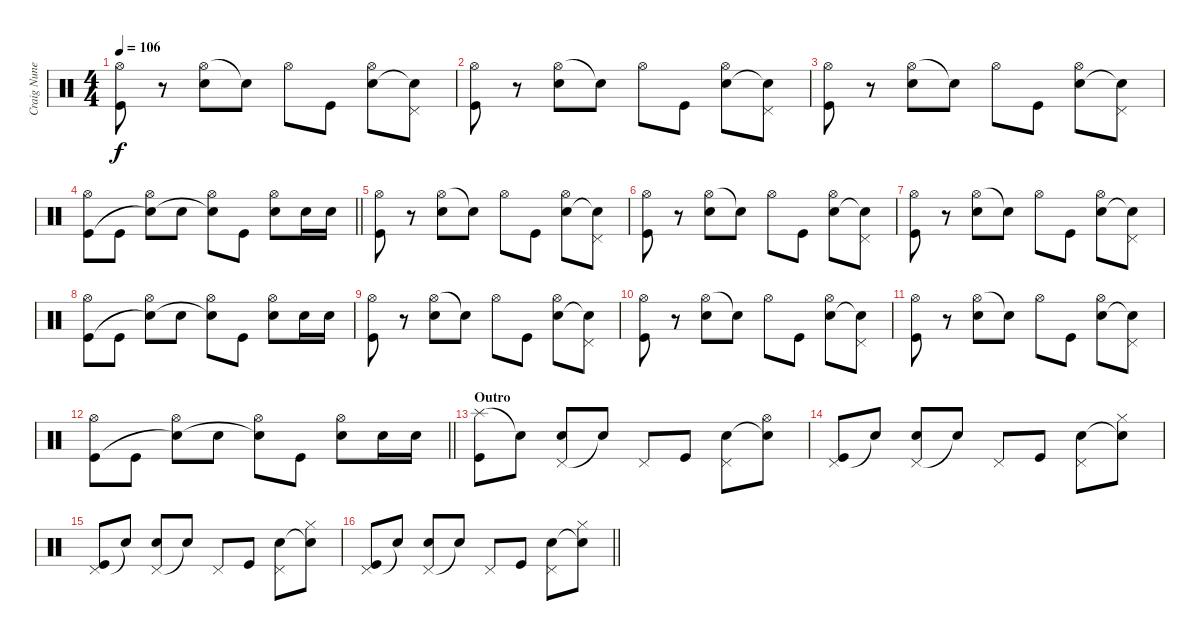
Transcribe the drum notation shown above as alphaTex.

\track ("Craig Nunenmacher (Drums)" "Craig Nune") {instrument percussion}
\staff {score}
\articulation defaults
\ts (4 4)
\tempo 106
\clef neutral
\ks c
("Hi-Hat (open)" "Kick (hit)").8{dy f} r.8 ("Hi-Hat (open)" "Electric Snare (hit)").8 "Snare (hit)"{t}.8 "Hi-Hat (open)".8 "Kick (hit)".8 ("Hi-Hat (open)" "Electric Snare (hit)").8 ("Pedal Hi-Hat (hit)" "Snare (hit)"{t}).8 |
("Hi-Hat (open)" "Kick (hit)").8 r.8 ("Hi-Hat (open)" "Electric Snare (hit)").8 "Snare (hit)"{t}.8 "Hi-Hat (open)".8 "Kick (hit)".8 ("Hi-Hat (open)" "Electric Snare (hit)").8 ("Pedal Hi-Hat (hit)" "Snare (hit)"{t}).8 |
("Hi-Hat (open)" "Kick (hit)").8 r.8 ("Hi-Hat (open)" "Electric Snare (hit)").8 "Snare (hit)"{t}.8 "Hi-Hat (open)".8 "Kick (hit)".8 ("Hi-Hat (open)" "Electric Snare (hit)").8 ("Pedal Hi-Hat (hit)" "Snare (hit)"{t}).8 |
\barLineRight lightlight
("Hi-Hat (open)" "Kick (hit)").8 "Kick (hit)".8 ("Hi-Hat (open)" "Snare (hit)"{t}).8 "Electric Snare (hit)".8 ("Hi-Hat (open)" "Snare (hit)"{t}).8 "Kick (hit)".8 ("Hi-Hat (open)" "Electric Snare (hit)").8 "Electric Snare (hit)".16 "Electric Snare (hit)".16 |
("Hi-Hat (open)" "Kick (hit)").8 r.8 ("Hi-Hat (open)" "Electric Snare (hit)").8 "Snare (hit)"{t}.8 "Hi-Hat (open)".8 "Kick (hit)".8 ("Hi-Hat (open)" "Electric Snare (hit)").8 ("Pedal Hi-Hat (hit)" "Snare (hit)"{t}).8 |
("Hi-Hat (open)" "Kick (hit)").8 r.8 ("Hi-Hat (open)" "Electric Snare (hit)").8 "Snare (hit)"{t}.8 "Hi-Hat (open)".8 "Kick (hit)".8 ("Hi-Hat (open)" "Electric Snare (hit)").8 ("Pedal Hi-Hat (hit)" "Snare (hit)"{t}).8 |
("Hi-Hat (open)" "Kick (hit)").8 r.8 ("Hi-Hat (open)" "Electric Snare (hit)").8 "Snare (hit)"{t}.8 "Hi-Hat (open)".8 "Kick (hit)".8 ("Hi-Hat (open)" "Electric Snare (hit)").8 ("Pedal Hi-Hat (hit)" "Snare (hit)"{t}).8 |
("Hi-Hat (open)" "Kick (hit)").8 "Kick (hit)".8 ("Hi-Hat (open)" "Snare (hit)"{t}).8 "Electric Snare (hit)".8 ("Hi-Hat (open)" "Snare (hit)"{t}).8 "Kick (hit)".8 ("Hi-Hat (open)" "Electric Snare (hit)").8 "Electric Snare (hit)".16 "Electric Snare (hit)".16 |
("Hi-Hat (open)" "Kick (hit)").8 r.8 ("Hi-Hat (open)" "Electric Snare (hit)").8 "Snare (hit)"{t}.8 "Hi-Hat (open)".8 "Kick (hit)".8 ("Hi-Hat (open)" "Electric Snare (hit)").8 ("Pedal Hi-Hat (hit)" "Snare (hit)"{t}).8 |
("Hi-Hat (open)" "Kick (hit)").8 r.8 ("Hi-Hat (open)" "Electric Snare (hit)").8 "Snare (hit)"{t}.8 "Hi-Hat (open)".8 "Kick (hit)".8 ("Hi-Hat (open)" "Electric Snare (hit)").8 ("Pedal Hi-Hat (hit)" "Snare (hit)"{t}).8 |
("Hi-Hat (open)" "Kick (hit)").8 r.8 ("Hi-Hat (open)" "Electric Snare (hit)").8 "Snare (hit)"{t}.8 "Hi-Hat (open)".8 "Kick (hit)".8 ("Hi-Hat (open)" "Electric Snare (hit)").8 ("Pedal Hi-Hat (hit)" "Snare (hit)"{t}).8 |
\barLineRight lightlight
("Hi-Hat (open)" "Kick (hit)").8 "Kick (hit)".8 ("Hi-Hat (open)" "Snare (hit)"{t}).8 "Electric Snare (hit)".8 ("Hi-Hat (open)" "Snare (hit)"{t}).8 "Kick (hit)".8 ("Hi-Hat (open)" "Electric Snare (hit)").8 "Electric Snare (hit)".16 "Electric Snare (hit)".16 |
\section ("" "Outro")
("Splash (hit)" "Kick (hit)").8 "Snare (hit)"{t}.8 ("Pedal Hi-Hat (hit)" "Electric Snare (hit)").8 "Snare (hit)"{t}.8 "Pedal Hi-Hat (hit)".8 "Kick (hit)".8 ("Pedal Hi-Hat (hit)" "Electric Snare (hit)").8 ("Hi-Hat (open)" "Snare (hit)"{t}).8 |
("Pedal Hi-Hat (hit)" "Kick (hit)").8 "Snare (hit)"{t}.8 ("Pedal Hi-Hat (hit)" "Electric Snare (hit)").8 "Snare (hit)"{t}.8 "Pedal Hi-Hat (hit)".8 "Kick (hit)".8 ("Pedal Hi-Hat (hit)" "Electric Snare (hit)").8 ("Hi-Hat (closed)" "Snare (hit)"{t}).8 |
("Pedal Hi-Hat (hit)" "Kick (hit)").8 "Snare (hit)"{t}.8 ("Pedal Hi-Hat (hit)" "Electric Snare (hit)").8 "Snare (hit)"{t}.8 "Pedal Hi-Hat (hit)".8 "Kick (hit)".8 ("Pedal Hi-Hat (hit)" "Electric Snare (hit)").8 ("Hi-Hat (closed)" "Snare (hit)"{t}).8 |
\barLineRight lightlight
("Pedal Hi-Hat (hit)" "Kick (hit)").8 "Snare (hit)"{t}.8 ("Pedal Hi-Hat (hit)" "Electric Snare (hit)").8 "Snare (hit)"{t}.8 "Pedal Hi-Hat (hit)".8 "Kick (hit)".8 ("Pedal Hi-Hat (hit)" "Electric Snare (hit)").8 ("Hi-Hat (closed)" "Snare (hit)"{t}).8
